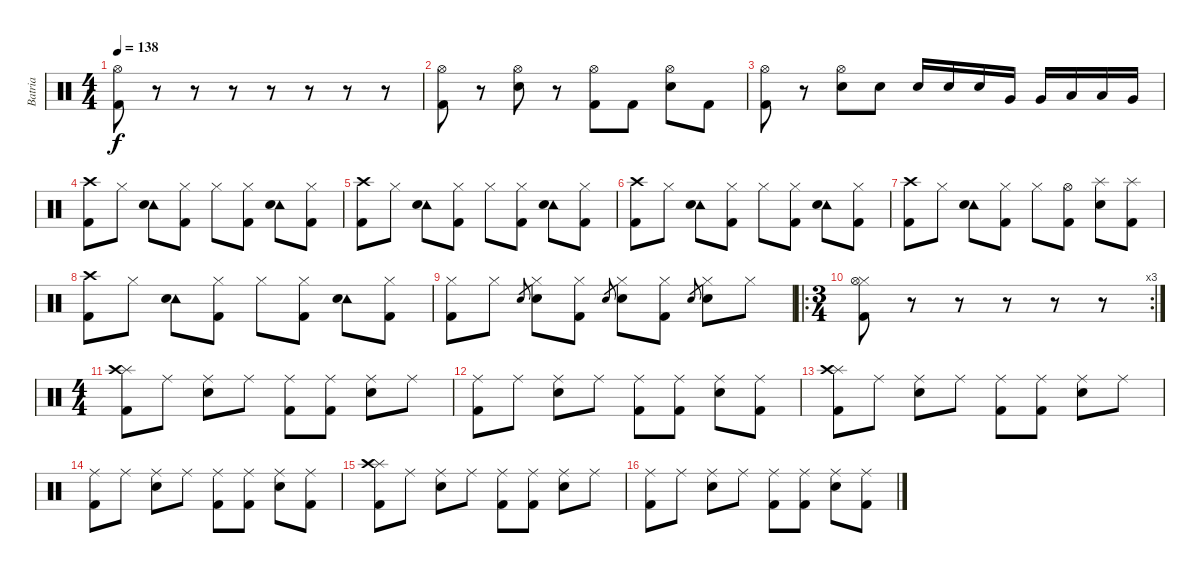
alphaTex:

\track ("Batria" "Batria") {instrument percussion}
\staff {score}
\articulation defaults
\ts (4 4)
\tempo 138
\clef neutral
\ks c
("Hi-Hat (open)" "Kick (hit) 2").8{dy f} r.8 r.8 r.8 r.8 r.8 r.8 r.8 |
("Hi-Hat (open)" "Kick (hit) 2").8 r.8 ("Hi-Hat (open)" "Electric Snare (hit)").8 r.8 ("Hi-Hat (open)" "Kick (hit) 2").8 "Kick (hit) 2".8 ("Hi-Hat (open)" "Electric Snare (hit)").8 "Kick (hit) 2".8 |
("Hi-Hat (open)" "Kick (hit) 2").8 r.8 ("Hi-Hat (open)" "Electric Snare (hit)").8 "Electric Snare (hit)".8 "Electric Snare (hit)".16 "Electric Snare (hit)".16 "Electric Snare (hit)".16 "Very Low Tom (hit)".16 "Very Low Tom (hit)".16 "Low Tom (hit)".16 "Low Tom (hit)".16 "Very Low Tom (hit)".16 |
("Crash high (hit)" "Kick (hit) 2").8 "Hi-Hat (closed)".8 ("Tambourine (hit)" "Electric Snare (hit)").8 ("Hi-Hat (closed)" "Kick (hit) 2").8 "Hi-Hat (closed)".8 ("Hi-Hat (closed)" "Kick (hit) 2").8 ("Tambourine (hit)" "Electric Snare (hit)").8 ("Hi-Hat (closed)" "Kick (hit) 2").8 |
("Crash high (hit)" "Kick (hit) 2").8 "Hi-Hat (closed)".8 ("Tambourine (hit)" "Electric Snare (hit)").8 ("Hi-Hat (closed)" "Kick (hit) 2").8 "Hi-Hat (closed)".8 ("Hi-Hat (closed)" "Kick (hit) 2").8 ("Tambourine (hit)" "Electric Snare (hit)").8 ("Hi-Hat (closed)" "Kick (hit) 2").8 |
("Crash high (hit)" "Kick (hit) 2").8 "Hi-Hat (closed)".8 ("Tambourine (hit)" "Electric Snare (hit)").8 ("Hi-Hat (closed)" "Kick (hit) 2").8 "Hi-Hat (closed)".8 ("Hi-Hat (closed)" "Kick (hit) 2").8 ("Tambourine (hit)" "Electric Snare (hit)").8 ("Hi-Hat (closed)" "Kick (hit) 2").8 |
("Crash high (hit)" "Kick (hit) 2").8 "Hi-Hat (closed)".8 ("Tambourine (hit)" "Electric Snare (hit)").8 ("Hi-Hat (closed)" "Kick (hit) 2").8 "Hi-Hat (closed)".8 ("Hi-Hat (open)" "Kick (hit) 2").8 ("Splash (hit)" "Electric Snare (hit)").8 ("Splash (hit)" "Kick (hit) 2").8 |
("Crash high (hit)" "Kick (hit) 2").8 "Hi-Hat (closed)".8 ("Tambourine (hit)" "Electric Snare (hit)").8 ("Hi-Hat (closed)" "Kick (hit) 2").8 "Hi-Hat (closed)".8 ("Hi-Hat (closed)" "Kick (hit) 2").8 ("Tambourine (hit)" "Electric Snare (hit)").8 ("Hi-Hat (closed)" "Kick (hit) 2").8 |
("Hi-Hat (closed)" "Kick (hit) 2").8 "Hi-Hat (closed)".8 "Electric Snare (hit)".8{gr} ("Hi-Hat (closed)" "Electric Snare (hit)").8 ("Hi-Hat (closed)" "Kick (hit) 2").8 "Electric Snare (hit)".8{gr} ("Hi-Hat (closed)" "Electric Snare (hit)").8 ("Hi-Hat (closed)" "Kick (hit) 2").8 "Electric Snare (hit)".8{gr} ("Hi-Hat (closed)" "Electric Snare (hit)").8 "Hi-Hat (closed)".8 |
\ro
\rc 3
\ts (3 4)
("Hi-Hat (closed)" "Hi-Hat (open)" "Kick (hit) 2").8 r.8 r.8 r.8 r.8 r.8 |
\ts (4 4)
("Splash (hit)" "Crash high (hit)" "Kick (hit) 2").8 "Ride (middle)".8 ("Ride (middle)" "Electric Snare (hit)").8 "Ride (middle)".8 ("Ride (middle)" "Kick (hit) 2").8 ("Ride (middle)" "Kick (hit) 2").8 ("Ride (middle)" "Electric Snare (hit)").8 "Ride (middle)".8 |
("Ride (middle)" "Kick (hit) 2").8 "Ride (middle)".8 ("Ride (middle)" "Electric Snare (hit)").8 "Ride (middle)".8 ("Ride (middle)" "Kick (hit) 2").8 ("Ride (middle)" "Kick (hit) 2").8 ("Ride (middle)" "Electric Snare (hit)").8 ("Ride (middle)" "Kick (hit) 2").8 |
("Splash (hit)" "Crash high (hit)" "Kick (hit) 2").8 "Ride (middle)".8 ("Ride (middle)" "Electric Snare (hit)").8 "Ride (middle)".8 ("Ride (middle)" "Kick (hit) 2").8 ("Ride (middle)" "Kick (hit) 2").8 ("Ride (middle)" "Electric Snare (hit)").8 "Ride (middle)".8 |
("Ride (middle)" "Kick (hit) 2").8 "Ride (middle)".8 ("Ride (middle)" "Electric Snare (hit)").8 "Ride (middle)".8 ("Ride (middle)" "Kick (hit) 2").8 ("Ride (middle)" "Kick (hit) 2").8 ("Ride (middle)" "Electric Snare (hit)").8 ("Ride (middle)" "Kick (hit) 2").8 |
("Splash (hit)" "Crash high (hit)" "Kick (hit) 2").8 "Ride (middle)".8 ("Ride (middle)" "Electric Snare (hit)").8 "Ride (middle)".8 ("Ride (middle)" "Kick (hit) 2").8 ("Ride (middle)" "Kick (hit) 2").8 ("Ride (middle)" "Electric Snare (hit)").8 "Ride (middle)".8 |
("Ride (middle)" "Kick (hit) 2").8 "Ride (middle)".8 ("Ride (middle)" "Electric Snare (hit)").8 "Ride (middle)".8 ("Ride (middle)" "Kick (hit) 2").8 ("Ride (middle)" "Kick (hit) 2").8 ("Ride (middle)" "Electric Snare (hit)").8 ("Ride (middle)" "Kick (hit) 2").8
